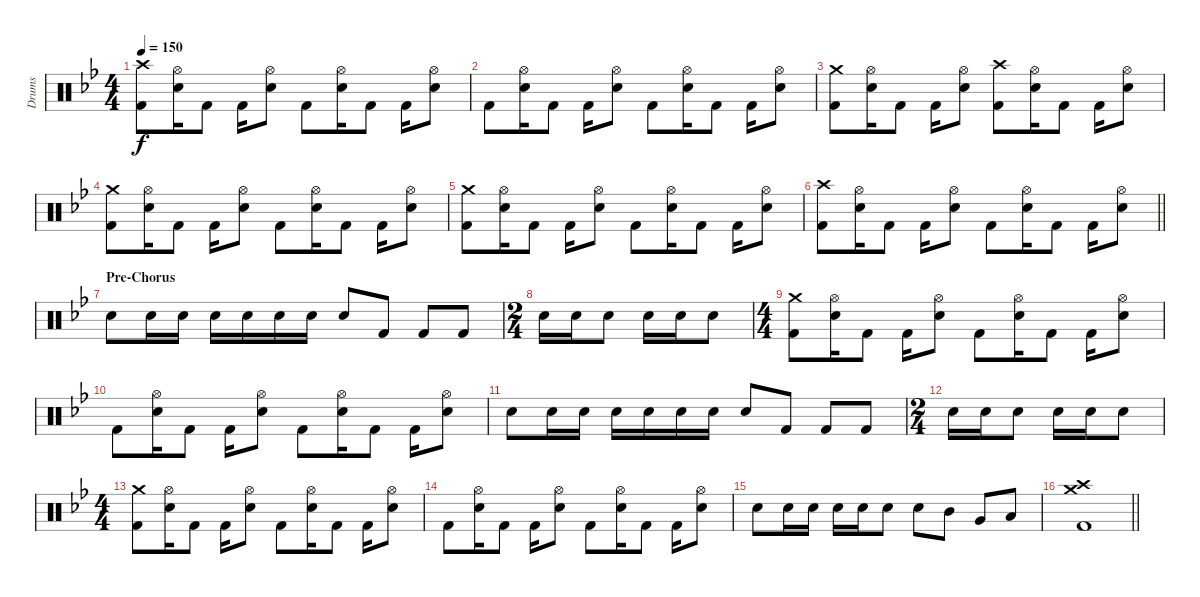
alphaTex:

\track ("Drums" "Drums") {instrument percussion}
\staff {score}
\articulation defaults
\ts (4 4)
\tempo 150
\clef neutral
\ks bb
("Crash high (hit)" "Kick (hit) 2").8{dy f} ("Hi-Hat (open)" "Snare (hit) 2").16 "Kick (hit) 2".8 "Kick (hit) 2".16 ("Hi-Hat (open)" "Snare (hit) 2").8 "Kick (hit) 2".8 ("Hi-Hat (open)" "Snare (hit) 2").16 "Kick (hit) 2".8 "Kick (hit) 2".16 ("Hi-Hat (open)" "Snare (hit) 2").8 |
"Kick (hit) 2".8 ("Hi-Hat (open)" "Snare (hit) 2").16 "Kick (hit) 2".8 "Kick (hit) 2".16 ("Hi-Hat (open)" "Snare (hit) 2").8 "Kick (hit) 2".8 ("Hi-Hat (open)" "Snare (hit) 2").16 "Kick (hit) 2".8 "Kick (hit) 2".16 ("Hi-Hat (open)" "Snare (hit) 2").8 |
("Crash medium (hit)" "Kick (hit) 2").8 ("Hi-Hat (open)" "Snare (hit) 2").16 "Kick (hit) 2".8 "Kick (hit) 2".16 ("Hi-Hat (open)" "Snare (hit) 2").8 ("Crash high (hit)" "Kick (hit) 2").8 ("Hi-Hat (open)" "Snare (hit) 2").16 "Kick (hit) 2".8 "Kick (hit) 2".16 ("Hi-Hat (open)" "Snare (hit) 2").8 |
("Crash medium (hit)" "Kick (hit) 2").8 ("Hi-Hat (open)" "Snare (hit) 2").16 "Kick (hit) 2".8 "Kick (hit) 2".16 ("Hi-Hat (open)" "Snare (hit) 2").8 "Kick (hit) 2".8 ("Hi-Hat (open)" "Snare (hit) 2").16 "Kick (hit) 2".8 "Kick (hit) 2".16 ("Hi-Hat (open)" "Snare (hit) 2").8 |
("Crash medium (hit)" "Kick (hit) 2").8 ("Hi-Hat (open)" "Snare (hit) 2").16 "Kick (hit) 2".8 "Kick (hit) 2".16 ("Hi-Hat (open)" "Snare (hit) 2").8 "Kick (hit) 2".8 ("Hi-Hat (open)" "Snare (hit) 2").16 "Kick (hit) 2".8 "Kick (hit) 2".16 ("Hi-Hat (open)" "Snare (hit) 2").8 |
\barLineRight lightlight
("Crash high (hit)" "Kick (hit) 2").8 ("Hi-Hat (open)" "Snare (hit) 2").16 "Kick (hit) 2".8 "Kick (hit) 2".16 ("Hi-Hat (open)" "Snare (hit) 2").8 "Kick (hit) 2".8 ("Hi-Hat (open)" "Snare (hit) 2").16 "Kick (hit) 2".8 "Kick (hit) 2".16 ("Hi-Hat (open)" "Snare (hit) 2").8 |
\section ("" "Pre-Chorus")
"Snare (hit) 2".8 "Snare (hit) 2".16 "Snare (hit) 2".16 "Snare (hit) 2".16 "Snare (hit) 2".16 "Snare (hit) 2".16 "Snare (hit) 2".16 "Snare (hit) 2".8 "Kick (hit) 2".8 "Kick (hit) 2".8 "Kick (hit) 2".8 |
\ts (2 4)
"Snare (hit) 2".16 "Snare (hit) 2".16 "Snare (hit) 2".8 "Snare (hit) 2".16 "Snare (hit) 2".16 "Snare (hit) 2".8 |
\ts (4 4)
("Crash medium (hit)" "Kick (hit) 2").8 ("Hi-Hat (open)" "Snare (hit) 2").16 "Kick (hit) 2".8 "Kick (hit) 2".16 ("Hi-Hat (open)" "Snare (hit) 2").8 "Kick (hit) 2".8 ("Hi-Hat (open)" "Snare (hit) 2").16 "Kick (hit) 2".8 "Kick (hit) 2".16 ("Hi-Hat (open)" "Snare (hit) 2").8 |
"Kick (hit) 2".8 ("Hi-Hat (open)" "Snare (hit) 2").16 "Kick (hit) 2".8 "Kick (hit) 2".16 ("Hi-Hat (open)" "Snare (hit) 2").8 "Kick (hit) 2".8 ("Hi-Hat (open)" "Snare (hit) 2").16 "Kick (hit) 2".8 "Kick (hit) 2".16 ("Hi-Hat (open)" "Snare (hit) 2").8 |
"Snare (hit) 2".8 "Snare (hit) 2".16 "Snare (hit) 2".16 "Snare (hit) 2".16 "Snare (hit) 2".16 "Snare (hit) 2".16 "Snare (hit) 2".16 "Snare (hit) 2".8 "Kick (hit) 2".8 "Kick (hit) 2".8 "Kick (hit) 2".8 |
\ts (2 4)
"Snare (hit) 2".16 "Snare (hit) 2".16 "Snare (hit) 2".8 "Snare (hit) 2".16 "Snare (hit) 2".16 "Snare (hit) 2".8 |
\ts (4 4)
("Crash medium (hit)" "Kick (hit) 2").8 ("Hi-Hat (open)" "Snare (hit) 2").16 "Kick (hit) 2".8 "Kick (hit) 2".16 ("Hi-Hat (open)" "Snare (hit) 2").8 "Kick (hit) 2".8 ("Hi-Hat (open)" "Snare (hit) 2").16 "Kick (hit) 2".8 "Kick (hit) 2".16 ("Hi-Hat (open)" "Snare (hit) 2").8 |
"Kick (hit) 2".8 ("Hi-Hat (open)" "Snare (hit) 2").16 "Kick (hit) 2".8 "Kick (hit) 2".16 ("Hi-Hat (open)" "Snare (hit) 2").8 "Kick (hit) 2".8 ("Hi-Hat (open)" "Snare (hit) 2").16 "Kick (hit) 2".8 "Kick (hit) 2".16 ("Hi-Hat (open)" "Snare (hit) 2").8 |
"Snare (hit) 2".8 "Snare (hit) 2".16 "Snare (hit) 2".16 "Snare (hit) 2".16 "Snare (hit) 2".16 "Snare (hit) 2".8 "Snare (hit) 2".8 "Mid Tom (hit)".8 "Very Low Tom (hit)".8 "Low Floor Tom (hit)".8 |
\barLineRight lightlight
("Crash high (hit)" "Crash medium (hit)" "Kick (hit) 2").1
